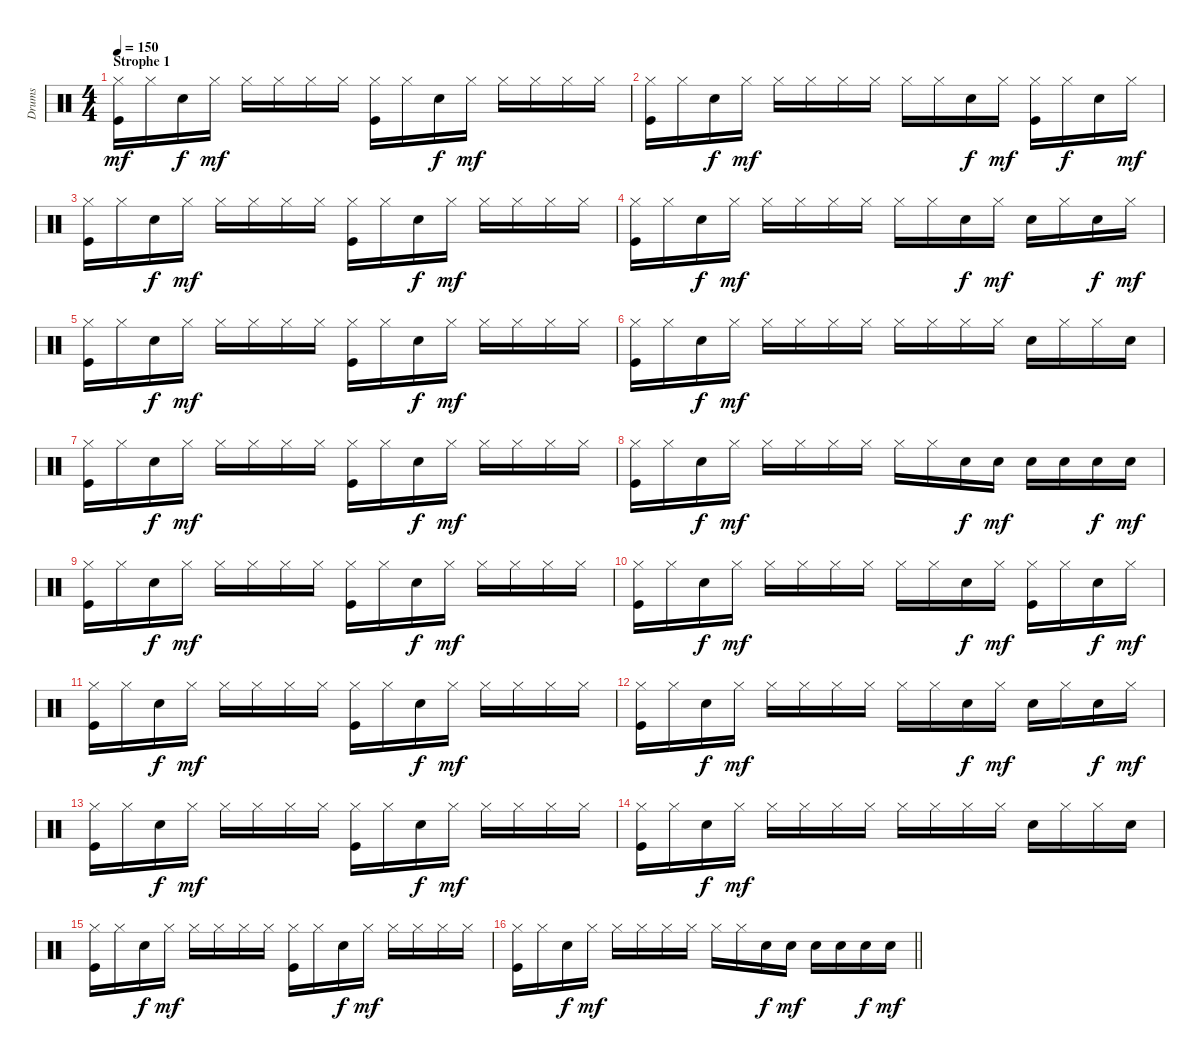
\track ("Drums" "Drums") {instrument percussion}
\staff {score}
\articulation defaults
\ts (4 4)
\section ("" "Strophe 1")
\tempo 150
\clef neutral
\ks c
("Hi-Hat (closed)" "Kick (hit)").16{dy mf} "Hi-Hat (closed)".16 "Snare (hit) 2".16{dy f} "Hi-Hat (closed)".16{dy mf} "Hi-Hat (closed)".16 "Hi-Hat (closed)".16 "Hi-Hat (closed)".16 "Hi-Hat (closed)".16 ("Hi-Hat (closed)" "Kick (hit)").16 "Hi-Hat (closed)".16 "Snare (hit) 2".16{dy f} "Hi-Hat (closed)".16{dy mf} "Hi-Hat (closed)".16 "Hi-Hat (closed)".16 "Hi-Hat (closed)".16 "Hi-Hat (closed)".16 |
("Hi-Hat (closed)" "Kick (hit)").16 "Hi-Hat (closed)".16 "Snare (hit) 2".16{dy f} "Hi-Hat (closed)".16{dy mf} "Hi-Hat (closed)".16 "Hi-Hat (closed)".16 "Hi-Hat (closed)".16 "Hi-Hat (closed)".16 "Hi-Hat (closed)".16 "Hi-Hat (closed)".16 "Snare (hit) 2".16{dy f} "Hi-Hat (closed)".16{dy mf} ("Hi-Hat (closed)" "Kick (hit)").16 "Hi-Hat (closed)".16{dy f} "Snare (hit) 2".16 "Hi-Hat (closed)".16{dy mf} |
("Hi-Hat (closed)" "Kick (hit)").16 "Hi-Hat (closed)".16 "Snare (hit) 2".16{dy f} "Hi-Hat (closed)".16{dy mf} "Hi-Hat (closed)".16 "Hi-Hat (closed)".16 "Hi-Hat (closed)".16 "Hi-Hat (closed)".16 ("Hi-Hat (closed)" "Kick (hit)").16 "Hi-Hat (closed)".16 "Snare (hit) 2".16{dy f} "Hi-Hat (closed)".16{dy mf} "Hi-Hat (closed)".16 "Hi-Hat (closed)".16 "Hi-Hat (closed)".16 "Hi-Hat (closed)".16 |
("Hi-Hat (closed)" "Kick (hit)").16 "Hi-Hat (closed)".16 "Snare (hit) 2".16{dy f} "Hi-Hat (closed)".16{dy mf} "Hi-Hat (closed)".16 "Hi-Hat (closed)".16 "Hi-Hat (closed)".16 "Hi-Hat (closed)".16 "Hi-Hat (closed)".16 "Hi-Hat (closed)".16 "Snare (hit) 2".16{dy f} "Hi-Hat (closed)".16{dy mf} "Snare (hit) 2".16 "Hi-Hat (closed)".16 "Snare (hit) 2".16{dy f} "Hi-Hat (closed)".16{dy mf} |
("Hi-Hat (closed)" "Kick (hit)").16 "Hi-Hat (closed)".16 "Snare (hit) 2".16{dy f} "Hi-Hat (closed)".16{dy mf} "Hi-Hat (closed)".16 "Hi-Hat (closed)".16 "Hi-Hat (closed)".16 "Hi-Hat (closed)".16 ("Hi-Hat (closed)" "Kick (hit)").16 "Hi-Hat (closed)".16 "Snare (hit) 2".16{dy f} "Hi-Hat (closed)".16{dy mf} "Hi-Hat (closed)".16 "Hi-Hat (closed)".16 "Hi-Hat (closed)".16 "Hi-Hat (closed)".16 |
("Hi-Hat (closed)" "Kick (hit)").16 "Hi-Hat (closed)".16 "Snare (hit) 2".16{dy f} "Hi-Hat (closed)".16{dy mf} "Hi-Hat (closed)".16 "Hi-Hat (closed)".16 "Hi-Hat (closed)".16 "Hi-Hat (closed)".16 "Hi-Hat (closed)".16 "Hi-Hat (closed)".16 "Hi-Hat (closed)".16 "Hi-Hat (closed)".16 "Snare (hit) 2".16 "Hi-Hat (closed)".16 "Hi-Hat (closed)".16 "Snare (hit) 2".16 |
("Hi-Hat (closed)" "Kick (hit)").16 "Hi-Hat (closed)".16 "Snare (hit) 2".16{dy f} "Hi-Hat (closed)".16{dy mf} "Hi-Hat (closed)".16 "Hi-Hat (closed)".16 "Hi-Hat (closed)".16 "Hi-Hat (closed)".16 ("Hi-Hat (closed)" "Kick (hit)").16 "Hi-Hat (closed)".16 "Snare (hit) 2".16{dy f} "Hi-Hat (closed)".16{dy mf} "Hi-Hat (closed)".16 "Hi-Hat (closed)".16 "Hi-Hat (closed)".16 "Hi-Hat (closed)".16 |
("Hi-Hat (closed)" "Kick (hit)").16 "Hi-Hat (closed)".16 "Snare (hit) 2".16{dy f} "Hi-Hat (closed)".16{dy mf} "Hi-Hat (closed)".16 "Hi-Hat (closed)".16 "Hi-Hat (closed)".16 "Hi-Hat (closed)".16 "Hi-Hat (closed)".16 "Hi-Hat (closed)".16 "Snare (hit) 2".16{dy f} "Snare (hit) 2".16{dy mf} "Snare (hit) 2".16 "Snare (hit) 2".16 "Snare (hit) 2".16{dy f} "Snare (hit) 2".16{dy mf} |
("Hi-Hat (closed)" "Kick (hit)").16 "Hi-Hat (closed)".16 "Snare (hit) 2".16{dy f} "Hi-Hat (closed)".16{dy mf} "Hi-Hat (closed)".16 "Hi-Hat (closed)".16 "Hi-Hat (closed)".16 "Hi-Hat (closed)".16 ("Hi-Hat (closed)" "Kick (hit)").16 "Hi-Hat (closed)".16 "Snare (hit) 2".16{dy f} "Hi-Hat (closed)".16{dy mf} "Hi-Hat (closed)".16 "Hi-Hat (closed)".16 "Hi-Hat (closed)".16 "Hi-Hat (closed)".16 |
("Hi-Hat (closed)" "Kick (hit)").16 "Hi-Hat (closed)".16 "Snare (hit) 2".16{dy f} "Hi-Hat (closed)".16{dy mf} "Hi-Hat (closed)".16 "Hi-Hat (closed)".16 "Hi-Hat (closed)".16 "Hi-Hat (closed)".16 "Hi-Hat (closed)".16 "Hi-Hat (closed)".16 "Snare (hit) 2".16{dy f} "Hi-Hat (closed)".16{dy mf} ("Hi-Hat (closed)" "Kick (hit)").16 "Hi-Hat (closed)".16 "Snare (hit) 2".16{dy f} "Hi-Hat (closed)".16{dy mf} |
("Hi-Hat (closed)" "Kick (hit)").16 "Hi-Hat (closed)".16 "Snare (hit) 2".16{dy f} "Hi-Hat (closed)".16{dy mf} "Hi-Hat (closed)".16 "Hi-Hat (closed)".16 "Hi-Hat (closed)".16 "Hi-Hat (closed)".16 ("Hi-Hat (closed)" "Kick (hit)").16 "Hi-Hat (closed)".16 "Snare (hit) 2".16{dy f} "Hi-Hat (closed)".16{dy mf} "Hi-Hat (closed)".16 "Hi-Hat (closed)".16 "Hi-Hat (closed)".16 "Hi-Hat (closed)".16 |
("Hi-Hat (closed)" "Kick (hit)").16 "Hi-Hat (closed)".16 "Snare (hit) 2".16{dy f} "Hi-Hat (closed)".16{dy mf} "Hi-Hat (closed)".16 "Hi-Hat (closed)".16 "Hi-Hat (closed)".16 "Hi-Hat (closed)".16 "Hi-Hat (closed)".16 "Hi-Hat (closed)".16 "Snare (hit) 2".16{dy f} "Hi-Hat (closed)".16{dy mf} "Snare (hit) 2".16 "Hi-Hat (closed)".16 "Snare (hit) 2".16{dy f} "Hi-Hat (closed)".16{dy mf} |
("Hi-Hat (closed)" "Kick (hit)").16 "Hi-Hat (closed)".16 "Snare (hit) 2".16{dy f} "Hi-Hat (closed)".16{dy mf} "Hi-Hat (closed)".16 "Hi-Hat (closed)".16 "Hi-Hat (closed)".16 "Hi-Hat (closed)".16 ("Hi-Hat (closed)" "Kick (hit)").16 "Hi-Hat (closed)".16 "Snare (hit) 2".16{dy f} "Hi-Hat (closed)".16{dy mf} "Hi-Hat (closed)".16 "Hi-Hat (closed)".16 "Hi-Hat (closed)".16 "Hi-Hat (closed)".16 |
("Hi-Hat (closed)" "Kick (hit)").16 "Hi-Hat (closed)".16 "Snare (hit) 2".16{dy f} "Hi-Hat (closed)".16{dy mf} "Hi-Hat (closed)".16 "Hi-Hat (closed)".16 "Hi-Hat (closed)".16 "Hi-Hat (closed)".16 "Hi-Hat (closed)".16 "Hi-Hat (closed)".16 "Hi-Hat (closed)".16 "Hi-Hat (closed)".16 "Snare (hit) 2".16 "Hi-Hat (closed)".16 "Hi-Hat (closed)".16 "Snare (hit) 2".16 |
("Hi-Hat (closed)" "Kick (hit)").16 "Hi-Hat (closed)".16 "Snare (hit) 2".16{dy f} "Hi-Hat (closed)".16{dy mf} "Hi-Hat (closed)".16 "Hi-Hat (closed)".16 "Hi-Hat (closed)".16 "Hi-Hat (closed)".16 ("Hi-Hat (closed)" "Kick (hit)").16 "Hi-Hat (closed)".16 "Snare (hit) 2".16{dy f} "Hi-Hat (closed)".16{dy mf} "Hi-Hat (closed)".16 "Hi-Hat (closed)".16 "Hi-Hat (closed)".16 "Hi-Hat (closed)".16 |
\barLineRight lightlight
("Hi-Hat (closed)" "Kick (hit)").16 "Hi-Hat (closed)".16 "Snare (hit) 2".16{dy f} "Hi-Hat (closed)".16{dy mf} "Hi-Hat (closed)".16 "Hi-Hat (closed)".16 "Hi-Hat (closed)".16 "Hi-Hat (closed)".16 "Hi-Hat (closed)".16 "Hi-Hat (closed)".16 "Snare (hit) 2".16{dy f} "Snare (hit) 2".16{dy mf} "Snare (hit) 2".16 "Snare (hit) 2".16 "Snare (hit) 2".16{dy f} "Snare (hit) 2".16{dy mf}
